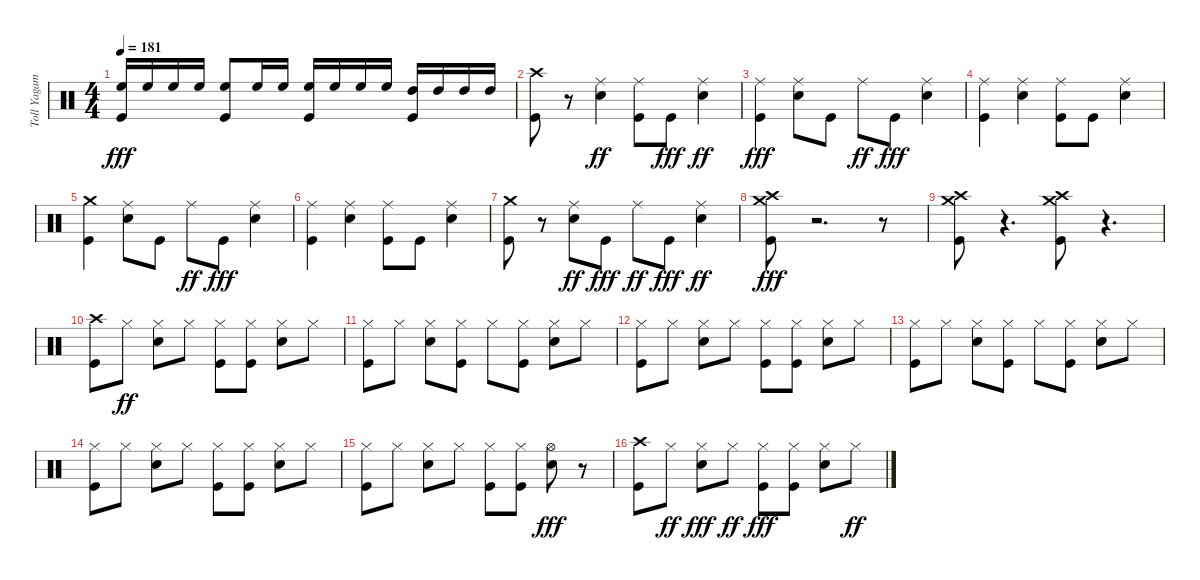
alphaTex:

\track ("Toll Yagami" "Toll Yagam") {instrument percussion}
\staff {score}
\articulation defaults
\ts (4 4)
\tempo 181
\clef neutral
\ks c
("Kick (hit)" "High Floor Tom (hit)").16{dy fff} "High Floor Tom (hit)".16 "High Floor Tom (hit)".16 "High Floor Tom (hit)".16 ("Kick (hit)" "High Floor Tom (hit)").8 "High Floor Tom (hit)".16 "High Floor Tom (hit)".16 ("Kick (hit)" "High Floor Tom (hit)").16 "High Floor Tom (hit)".16 "High Floor Tom (hit)".16 "High Floor Tom (hit)".16 ("Kick (hit)" "High Tom (hit)").16 "High Tom (hit)".16 "High Tom (hit)".16 "High Tom (hit)".16 |
("Crash high (hit)" "Kick (hit)").8 r.8 ("Snare (hit) 2" "Ride (middle)").4{dy ff} ("Kick (hit)" "Ride (middle)").8 "Kick (hit)".8{dy fff} ("Snare (hit) 2" "Ride (middle)").4{dy ff} |
("Ride (middle)" "Kick (hit)").4{dy fff} ("Ride (middle)" "Snare (hit) 2").8 "Kick (hit)".8 "Ride (middle)".8{dy ff} "Kick (hit)".8{dy fff} ("Ride (middle)" "Snare (hit) 2").4 |
("Ride (middle)" "Kick (hit)").4 ("Ride (middle)" "Snare (hit) 2").4 ("Ride (middle)" "Kick (hit)").8 "Kick (hit)".8 ("Ride (middle)" "Snare (hit) 2").4 |
("Crash medium (hit)" "Kick (hit)").4 ("Ride (middle)" "Snare (hit) 2").8 "Kick (hit)".8 "Ride (middle)".8{dy ff} "Kick (hit)".8{dy fff} ("Ride (middle)" "Snare (hit) 2").4 |
("Ride (middle)" "Kick (hit)").4 ("Ride (middle)" "Snare (hit) 2").4 ("Ride (middle)" "Kick (hit)").8 "Kick (hit)".8 ("Ride (middle)" "Snare (hit) 2").4 |
("Crash medium (hit)" "Kick (hit)").8 r.8 ("Snare (hit) 2" "Ride (middle)").8{dy ff} "Kick (hit)".8{dy fff} "Ride (middle)".8{dy ff} "Kick (hit)".8{dy fff} ("Snare (hit) 2" "Ride (middle)").4{dy ff} |
("Kick (hit)" "Crash high (hit)" "Crash medium (hit)").8{dy fff} r.2{d} r.8 |
("Kick (hit)" "Crash medium (hit)" "Crash high (hit)").8 r.4{d} ("Kick (hit)" "Crash medium (hit)" "Crash high (hit)").8 r.4{d} |
("Kick (hit)" "Crash high (hit)").8 "Hi-Hat (closed)".8{dy ff} ("Snare (hit) 2" "Hi-Hat (closed)").8 "Hi-Hat (closed)".8 ("Kick (hit)" "Hi-Hat (closed)").8 ("Kick (hit)" "Hi-Hat (closed)").8 ("Snare (hit) 2" "Hi-Hat (closed)").8 "Hi-Hat (closed)".8 |
("Kick (hit)" "Hi-Hat (closed)").8 "Hi-Hat (closed)".8 ("Snare (hit) 2" "Hi-Hat (closed)").8 ("Kick (hit)" "Hi-Hat (closed)").8 "Hi-Hat (closed)".8 ("Kick (hit)" "Hi-Hat (closed)").8 ("Snare (hit) 2" "Hi-Hat (closed)").8 "Hi-Hat (closed)".8 |
("Kick (hit)" "Hi-Hat (closed)").8 "Hi-Hat (closed)".8 ("Snare (hit) 2" "Hi-Hat (closed)").8 "Hi-Hat (closed)".8 ("Kick (hit)" "Hi-Hat (closed)").8 ("Kick (hit)" "Hi-Hat (closed)").8 ("Snare (hit) 2" "Hi-Hat (closed)").8 "Hi-Hat (closed)".8 |
("Kick (hit)" "Hi-Hat (closed)").8 "Hi-Hat (closed)".8 ("Snare (hit) 2" "Hi-Hat (closed)").8 ("Kick (hit)" "Hi-Hat (closed)").8 "Hi-Hat (closed)".8 ("Kick (hit)" "Hi-Hat (closed)").8 ("Snare (hit) 2" "Hi-Hat (closed)").8 "Hi-Hat (closed)".8 |
("Kick (hit)" "Hi-Hat (closed)").8 "Hi-Hat (closed)".8 ("Snare (hit) 2" "Hi-Hat (closed)").8 "Hi-Hat (closed)".8 ("Kick (hit)" "Hi-Hat (closed)").8 ("Kick (hit)" "Hi-Hat (closed)").8 ("Snare (hit) 2" "Hi-Hat (closed)").8 "Hi-Hat (closed)".8 |
("Kick (hit)" "Hi-Hat (closed)").8 "Hi-Hat (closed)".8 ("Snare (hit) 2" "Hi-Hat (closed)").8 "Hi-Hat (closed)".8 ("Kick (hit)" "Hi-Hat (closed)").8 ("Kick (hit)" "Hi-Hat (closed)").8 ("Snare (hit) 2" "Hi-Hat (open)").8{dy fff} r.8 |
("Crash high (hit)" "Kick (hit)").8 "Hi-Hat (closed)".8{dy ff} ("Hi-Hat (closed)" "Snare (hit) 2").8{dy fff} "Hi-Hat (closed)".8{dy ff} ("Hi-Hat (closed)" "Kick (hit)").8{dy fff} ("Hi-Hat (closed)" "Kick (hit)").8 ("Hi-Hat (closed)" "Snare (hit) 2").8 "Hi-Hat (closed)".8{dy ff}
